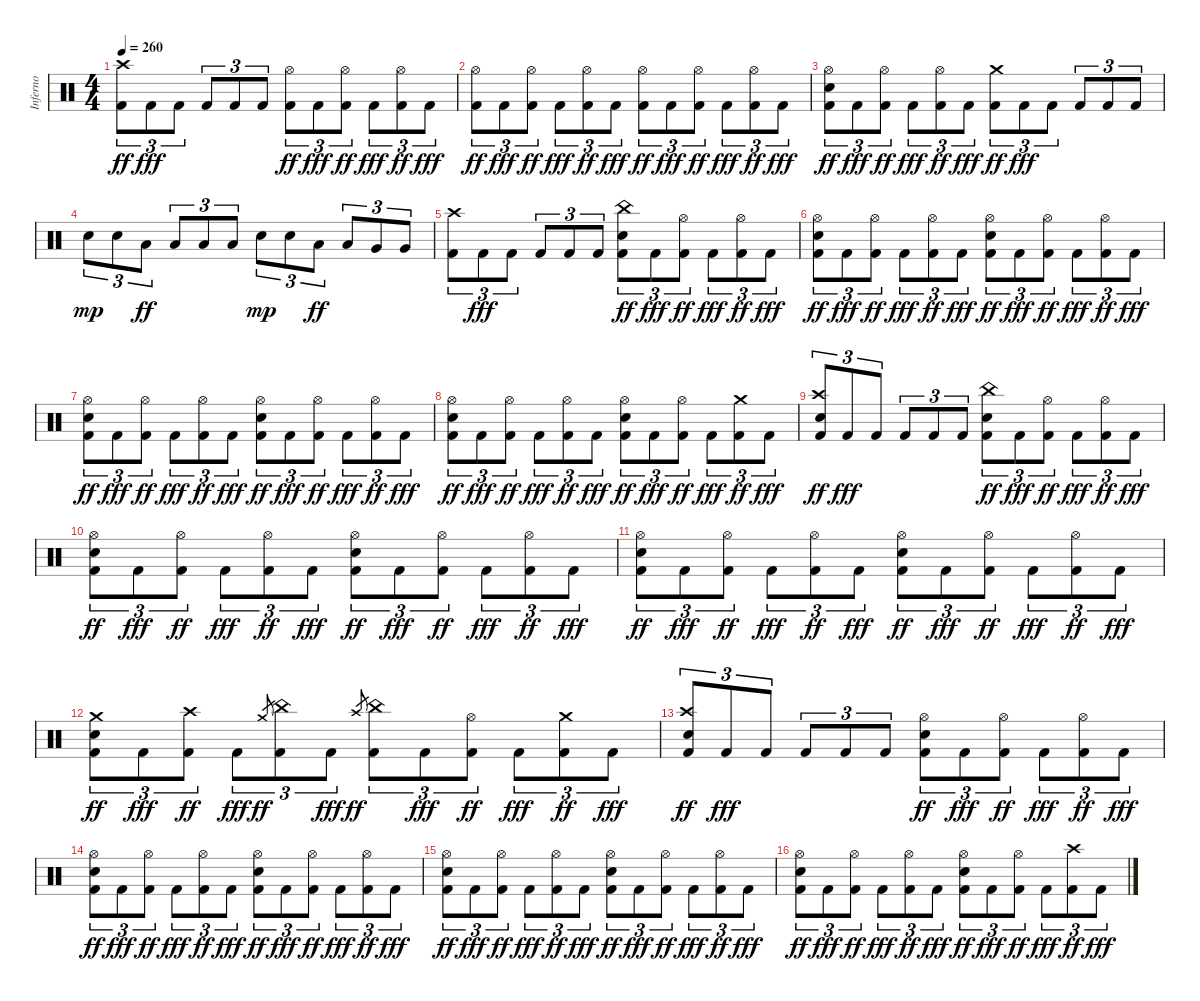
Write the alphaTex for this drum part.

\track ("Inferno" "Inferno") {instrument percussion}
\staff {score}
\articulation defaults
\ts (4 4)
\tempo 260
\clef neutral
\ks c
("Kick (hit) 2" "Crash high (hit)").8{tu (3 2) dy ff} "Kick (hit) 2".8{tu (3 2) dy fff} "Kick (hit) 2".8{tu (3 2)} "Kick (hit) 2".8{tu (3 2)} "Kick (hit) 2".8{tu (3 2)} "Kick (hit) 2".8{tu (3 2)} ("Kick (hit) 2" "Hi-Hat (open)").8{tu (3 2) dy ff} "Kick (hit) 2".8{tu (3 2) dy fff} ("Kick (hit) 2" "Hi-Hat (open)").8{tu (3 2) dy ff} "Kick (hit) 2".8{tu (3 2) dy fff} ("Kick (hit) 2" "Hi-Hat (open)").8{tu (3 2) dy ff} "Kick (hit) 2".8{tu (3 2) dy fff} |
("Kick (hit) 2" "Hi-Hat (open)").8{tu (3 2) dy ff} "Kick (hit) 2".8{tu (3 2) dy fff} ("Kick (hit) 2" "Hi-Hat (open)").8{tu (3 2) dy ff} "Kick (hit) 2".8{tu (3 2) dy fff} ("Kick (hit) 2" "Hi-Hat (open)").8{tu (3 2) dy ff} "Kick (hit) 2".8{tu (3 2) dy fff} ("Kick (hit) 2" "Hi-Hat (open)").8{tu (3 2) dy ff} "Kick (hit) 2".8{tu (3 2) dy fff} ("Kick (hit) 2" "Hi-Hat (open)").8{tu (3 2) dy ff} "Kick (hit) 2".8{tu (3 2) dy fff} ("Kick (hit) 2" "Hi-Hat (open)").8{tu (3 2) dy ff} "Kick (hit) 2".8{tu (3 2) dy fff} |
("Kick (hit) 2" "Electric Snare (hit)" "Hi-Hat (open)").8{tu (3 2) dy ff} "Kick (hit) 2".8{tu (3 2) dy fff} ("Kick (hit) 2" "Hi-Hat (open)").8{tu (3 2) dy ff} "Kick (hit) 2".8{tu (3 2) dy fff} ("Kick (hit) 2" "Hi-Hat (open)").8{tu (3 2) dy ff} "Kick (hit) 2".8{tu (3 2) dy fff} ("Kick (hit) 2" "Crash medium (hit)").8{tu (3 2) dy ff} "Kick (hit) 2".8{tu (3 2) dy fff} "Kick (hit) 2".8{tu (3 2)} "Kick (hit) 2".8{tu (3 2)} "Kick (hit) 2".8{tu (3 2)} "Kick (hit) 2".8{tu (3 2)} |
"Electric Snare (hit)".8{tu (3 2) dy mp} "Electric Snare (hit)".8{tu (3 2)} "Low Tom (hit)".8{tu (3 2) dy ff} "Low Tom (hit)".8{tu (3 2)} "Low Tom (hit)".8{tu (3 2)} "Low Tom (hit)".8{tu (3 2)} "Electric Snare (hit)".8{tu (3 2) dy mp} "Electric Snare (hit)".8{tu (3 2)} "Low Tom (hit)".8{tu (3 2) dy ff} "Low Tom (hit)".8{tu (3 2)} "Very Low Tom (hit)".8{tu (3 2)} "Very Low Tom (hit)".8{tu (3 2)} |
("Kick (hit) 2" "Crash high (hit)").8{tu (3 2)} "Kick (hit) 2".8{tu (3 2) dy fff} "Kick (hit) 2".8{tu (3 2)} "Kick (hit) 2".8{tu (3 2)} "Kick (hit) 2".8{tu (3 2)} "Kick (hit) 2".8{tu (3 2)} ("Kick (hit) 2" "Electric Snare (hit)" "China (hit)").8{tu (3 2) dy ff} "Kick (hit) 2".8{tu (3 2) dy fff} ("Kick (hit) 2" "Hi-Hat (open)").8{tu (3 2) dy ff} "Kick (hit) 2".8{tu (3 2) dy fff} ("Kick (hit) 2" "Hi-Hat (open)").8{tu (3 2) dy ff} "Kick (hit) 2".8{tu (3 2) dy fff} |
("Kick (hit) 2" "Electric Snare (hit)" "Hi-Hat (open)").8{tu (3 2) dy ff} "Kick (hit) 2".8{tu (3 2) dy fff} ("Kick (hit) 2" "Hi-Hat (open)").8{tu (3 2) dy ff} "Kick (hit) 2".8{tu (3 2) dy fff} ("Kick (hit) 2" "Hi-Hat (open)").8{tu (3 2) dy ff} "Kick (hit) 2".8{tu (3 2) dy fff} ("Kick (hit) 2" "Electric Snare (hit)" "Hi-Hat (open)").8{tu (3 2) dy ff} "Kick (hit) 2".8{tu (3 2) dy fff} ("Kick (hit) 2" "Hi-Hat (open)").8{tu (3 2) dy ff} "Kick (hit) 2".8{tu (3 2) dy fff} ("Kick (hit) 2" "Hi-Hat (open)").8{tu (3 2) dy ff} "Kick (hit) 2".8{tu (3 2) dy fff} |
("Kick (hit) 2" "Electric Snare (hit)" "Hi-Hat (open)").8{tu (3 2) dy ff} "Kick (hit) 2".8{tu (3 2) dy fff} ("Kick (hit) 2" "Hi-Hat (open)").8{tu (3 2) dy ff} "Kick (hit) 2".8{tu (3 2) dy fff} ("Kick (hit) 2" "Hi-Hat (open)").8{tu (3 2) dy ff} "Kick (hit) 2".8{tu (3 2) dy fff} ("Kick (hit) 2" "Electric Snare (hit)" "Hi-Hat (open)").8{tu (3 2) dy ff} "Kick (hit) 2".8{tu (3 2) dy fff} ("Kick (hit) 2" "Hi-Hat (open)").8{tu (3 2) dy ff} "Kick (hit) 2".8{tu (3 2) dy fff} ("Kick (hit) 2" "Hi-Hat (open)").8{tu (3 2) dy ff} "Kick (hit) 2".8{tu (3 2) dy fff} |
("Kick (hit) 2" "Electric Snare (hit)" "Hi-Hat (open)").8{tu (3 2) dy ff} "Kick (hit) 2".8{tu (3 2) dy fff} ("Kick (hit) 2" "Hi-Hat (open)").8{tu (3 2) dy ff} "Kick (hit) 2".8{tu (3 2) dy fff} ("Kick (hit) 2" "Hi-Hat (open)").8{tu (3 2) dy ff} "Kick (hit) 2".8{tu (3 2) dy fff} ("Kick (hit) 2" "Electric Snare (hit)" "Hi-Hat (open)").8{tu (3 2) dy ff} "Kick (hit) 2".8{tu (3 2) dy fff} ("Kick (hit) 2" "Hi-Hat (open)").8{tu (3 2) dy ff} "Kick (hit) 2".8{tu (3 2) dy fff} ("Kick (hit) 2" "Crash medium (hit)").8{tu (3 2) dy ff} "Kick (hit) 2".8{tu (3 2) dy fff} |
("Kick (hit) 2" "Electric Snare (hit)" "Crash high (hit)").8{tu (3 2) dy ff} "Kick (hit) 2".8{tu (3 2) dy fff} "Kick (hit) 2".8{tu (3 2)} "Kick (hit) 2".8{tu (3 2)} "Kick (hit) 2".8{tu (3 2)} "Kick (hit) 2".8{tu (3 2)} ("Kick (hit) 2" "Electric Snare (hit)" "China (hit)").8{tu (3 2) dy ff} "Kick (hit) 2".8{tu (3 2) dy fff} ("Kick (hit) 2" "Hi-Hat (open)").8{tu (3 2) dy ff} "Kick (hit) 2".8{tu (3 2) dy fff} ("Kick (hit) 2" "Hi-Hat (open)").8{tu (3 2) dy ff} "Kick (hit) 2".8{tu (3 2) dy fff} |
("Kick (hit) 2" "Electric Snare (hit)" "Hi-Hat (open)").8{tu (3 2) dy ff} "Kick (hit) 2".8{tu (3 2) dy fff} ("Kick (hit) 2" "Hi-Hat (open)").8{tu (3 2) dy ff} "Kick (hit) 2".8{tu (3 2) dy fff} ("Kick (hit) 2" "Hi-Hat (open)").8{tu (3 2) dy ff} "Kick (hit) 2".8{tu (3 2) dy fff} ("Kick (hit) 2" "Electric Snare (hit)" "Hi-Hat (open)").8{tu (3 2) dy ff} "Kick (hit) 2".8{tu (3 2) dy fff} ("Kick (hit) 2" "Hi-Hat (open)").8{tu (3 2) dy ff} "Kick (hit) 2".8{tu (3 2) dy fff} ("Kick (hit) 2" "Hi-Hat (open)").8{tu (3 2) dy ff} "Kick (hit) 2".8{tu (3 2) dy fff} |
("Kick (hit) 2" "Electric Snare (hit)" "Hi-Hat (open)").8{tu (3 2) dy ff} "Kick (hit) 2".8{tu (3 2) dy fff} ("Kick (hit) 2" "Hi-Hat (open)").8{tu (3 2) dy ff} "Kick (hit) 2".8{tu (3 2) dy fff} ("Kick (hit) 2" "Hi-Hat (open)").8{tu (3 2) dy ff} "Kick (hit) 2".8{tu (3 2) dy fff} ("Kick (hit) 2" "Electric Snare (hit)" "Hi-Hat (open)").8{tu (3 2) dy ff} "Kick (hit) 2".8{tu (3 2) dy fff} ("Kick (hit) 2" "Hi-Hat (open)").8{tu (3 2) dy ff} "Kick (hit) 2".8{tu (3 2) dy fff} ("Kick (hit) 2" "Hi-Hat (open)").8{tu (3 2) dy ff} "Kick (hit) 2".8{tu (3 2) dy fff} |
("Kick (hit) 2" "Electric Snare (hit)" "Crash medium (hit)").8{tu (3 2) dy ff} "Kick (hit) 2".8{tu (3 2) dy fff} ("Kick (hit) 2" "Crash high (hit)").8{tu (3 2) dy ff} "Kick (hit) 2".8{tu (3 2) dy fff} "Crash medium (hit)".8{gr dy ff} ("Kick (hit) 2" "China (hit)").8{tu (3 2)} "Kick (hit) 2".8{tu (3 2) dy fff} "Crash high (hit)".8{gr dy ff} ("Kick (hit) 2" "China (hit)").8{tu (3 2)} "Kick (hit) 2".8{tu (3 2) dy fff} ("Kick (hit) 2" "Hi-Hat (open)").8{tu (3 2) dy ff} "Kick (hit) 2".8{tu (3 2) dy fff} ("Kick (hit) 2" "Crash medium (hit)").8{tu (3 2) dy ff} "Kick (hit) 2".8{tu (3 2) dy fff} |
("Kick (hit) 2" "Electric Snare (hit)" "Crash high (hit)").8{tu (3 2) dy ff} "Kick (hit) 2".8{tu (3 2) dy fff} "Kick (hit) 2".8{tu (3 2)} "Kick (hit) 2".8{tu (3 2)} "Kick (hit) 2".8{tu (3 2)} "Kick (hit) 2".8{tu (3 2)} ("Kick (hit) 2" "Electric Snare (hit)" "Hi-Hat (open)").8{tu (3 2) dy ff} "Kick (hit) 2".8{tu (3 2) dy fff} ("Kick (hit) 2" "Hi-Hat (open)").8{tu (3 2) dy ff} "Kick (hit) 2".8{tu (3 2) dy fff} ("Kick (hit) 2" "Hi-Hat (open)").8{tu (3 2) dy ff} "Kick (hit) 2".8{tu (3 2) dy fff} |
("Kick (hit) 2" "Electric Snare (hit)" "Hi-Hat (open)").8{tu (3 2) dy ff} "Kick (hit) 2".8{tu (3 2) dy fff} ("Kick (hit) 2" "Hi-Hat (open)").8{tu (3 2) dy ff} "Kick (hit) 2".8{tu (3 2) dy fff} ("Kick (hit) 2" "Hi-Hat (open)").8{tu (3 2) dy ff} "Kick (hit) 2".8{tu (3 2) dy fff} ("Kick (hit) 2" "Electric Snare (hit)" "Hi-Hat (open)").8{tu (3 2) dy ff} "Kick (hit) 2".8{tu (3 2) dy fff} ("Kick (hit) 2" "Hi-Hat (open)").8{tu (3 2) dy ff} "Kick (hit) 2".8{tu (3 2) dy fff} ("Kick (hit) 2" "Hi-Hat (open)").8{tu (3 2) dy ff} "Kick (hit) 2".8{tu (3 2) dy fff} |
("Kick (hit) 2" "Electric Snare (hit)" "Hi-Hat (open)").8{tu (3 2) dy ff} "Kick (hit) 2".8{tu (3 2) dy fff} ("Kick (hit) 2" "Hi-Hat (open)").8{tu (3 2) dy ff} "Kick (hit) 2".8{tu (3 2) dy fff} ("Kick (hit) 2" "Hi-Hat (open)").8{tu (3 2) dy ff} "Kick (hit) 2".8{tu (3 2) dy fff} ("Kick (hit) 2" "Electric Snare (hit)" "Hi-Hat (open)").8{tu (3 2) dy ff} "Kick (hit) 2".8{tu (3 2) dy fff} ("Kick (hit) 2" "Hi-Hat (open)").8{tu (3 2) dy ff} "Kick (hit) 2".8{tu (3 2) dy fff} ("Kick (hit) 2" "Hi-Hat (open)").8{tu (3 2) dy ff} "Kick (hit) 2".8{tu (3 2) dy fff} |
("Kick (hit) 2" "Electric Snare (hit)" "Hi-Hat (open)").8{tu (3 2) dy ff} "Kick (hit) 2".8{tu (3 2) dy fff} ("Kick (hit) 2" "Hi-Hat (open)").8{tu (3 2) dy ff} "Kick (hit) 2".8{tu (3 2) dy fff} ("Kick (hit) 2" "Hi-Hat (open)").8{tu (3 2) dy ff} "Kick (hit) 2".8{tu (3 2) dy fff} ("Kick (hit) 2" "Electric Snare (hit)" "Hi-Hat (open)").8{tu (3 2) dy ff} "Kick (hit) 2".8{tu (3 2) dy fff} ("Kick (hit) 2" "Hi-Hat (open)").8{tu (3 2) dy ff} "Kick (hit) 2".8{tu (3 2) dy fff} ("Kick (hit) 2" "Crash high (hit)").8{tu (3 2) dy ff} "Kick (hit) 2".8{tu (3 2) dy fff}
